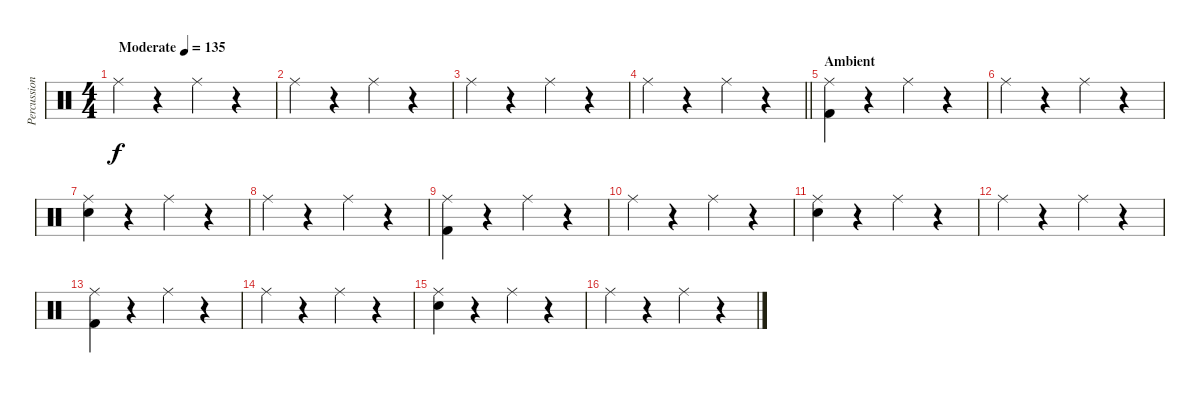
\track ("Percussion" "Percussion") {instrument percussion}
\staff {score}
\articulation defaults
\ts (4 4)
\tempo (135 "Moderate")
\clef neutral
\ks c "Ride (middle)".4{dy f}
r.4 "Ride (middle)".4 r.4 |
"Ride (middle)".4 r.4 "Ride (middle)".4 r.4 |
"Ride (middle)".4 r.4 "Ride (middle)".4 r.4 |
\barLineRight lightlight "Ride (middle)".4
r.4 "Ride (middle)".4 r.4 |
\section ("" "Ambient")
("Ride (middle)" "Kick (hit) 2").4 r.4 "Ride (middle)".4 r.4 |
"Ride (middle)".4 r.4 "Ride (middle)".4 r.4 |
("Ride (middle)" "Electric Snare (hit)").4 r.4 "Ride (middle)".4 r.4 |
"Ride (middle)".4 r.4 "Ride (middle)".4 r.4 |
("Ride (middle)" "Kick (hit) 2").4 r.4 "Ride (middle)".4 r.4 |
"Ride (middle)".4 r.4 "Ride (middle)".4 r.4 |
("Ride (middle)" "Electric Snare (hit)").4 r.4 "Ride (middle)".4 r.4 |
"Ride (middle)".4 r.4 "Ride (middle)".4 r.4 |
("Ride (middle)" "Kick (hit) 2").4 r.4 "Ride (middle)".4 r.4 |
"Ride (middle)".4 r.4 "Ride (middle)".4 r.4 |
("Ride (middle)" "Electric Snare (hit)").4 r.4 "Ride (middle)".4 r.4 |
"Ride (middle)".4 r.4 "Ride (middle)".4 r.4
